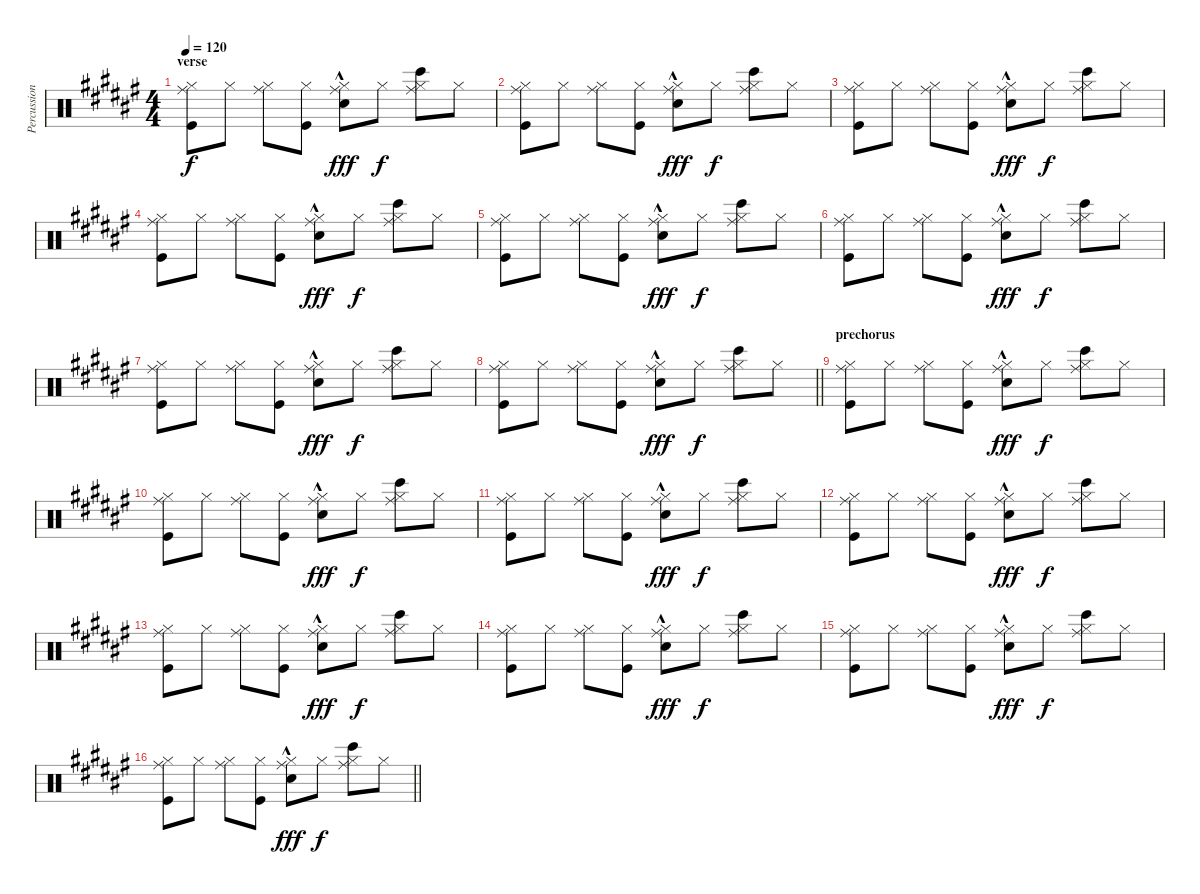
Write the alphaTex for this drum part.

\track ("Percussion" "Percussion") {instrument percussion}
\staff {score}
\articulation defaults
\ts (4 4)
\section ("" "verse")
\tempo 120
\clef neutral
\ks f#
("Kick (hit)" "Hi-Hat (closed)" "Ride (middle)").8{dy f} "Hi-Hat (closed)".8 ("Hi-Hat (closed)" "Ride (middle)").8 ("Kick (hit)" "Hi-Hat (closed)").8 ("Electric Snare (hit)"{hac} "Hi-Hat (closed)" "Ride (middle)").8{dy fff} "Hi-Hat (closed)".8{dy f} ("Bongo High (hit)" "Hi-Hat (closed)" "Ride (middle)").8 "Hi-Hat (closed)".8 |
("Kick (hit)" "Hi-Hat (closed)" "Ride (middle)").8 "Hi-Hat (closed)".8 ("Hi-Hat (closed)" "Ride (middle)").8 ("Kick (hit)" "Hi-Hat (closed)").8 ("Electric Snare (hit)"{hac} "Hi-Hat (closed)" "Ride (middle)").8{dy fff} "Hi-Hat (closed)".8{dy f} ("Bongo High (hit)" "Hi-Hat (closed)" "Ride (middle)").8 "Hi-Hat (closed)".8 |
("Kick (hit)" "Hi-Hat (closed)" "Ride (middle)").8 "Hi-Hat (closed)".8 ("Hi-Hat (closed)" "Ride (middle)").8 ("Kick (hit)" "Hi-Hat (closed)").8 ("Electric Snare (hit)"{hac} "Hi-Hat (closed)" "Ride (middle)").8{dy fff} "Hi-Hat (closed)".8{dy f} ("Bongo High (hit)" "Hi-Hat (closed)" "Ride (middle)").8 "Hi-Hat (closed)".8 |
("Kick (hit)" "Hi-Hat (closed)" "Ride (middle)").8 "Hi-Hat (closed)".8 ("Hi-Hat (closed)" "Ride (middle)").8 ("Kick (hit)" "Hi-Hat (closed)").8 ("Electric Snare (hit)"{hac} "Hi-Hat (closed)" "Ride (middle)").8{dy fff} "Hi-Hat (closed)".8{dy f} ("Bongo High (hit)" "Hi-Hat (closed)" "Ride (middle)").8 "Hi-Hat (closed)".8 |
("Kick (hit)" "Hi-Hat (closed)" "Ride (middle)").8 "Hi-Hat (closed)".8 ("Hi-Hat (closed)" "Ride (middle)").8 ("Kick (hit)" "Hi-Hat (closed)").8 ("Electric Snare (hit)"{hac} "Hi-Hat (closed)" "Ride (middle)").8{dy fff} "Hi-Hat (closed)".8{dy f} ("Bongo High (hit)" "Hi-Hat (closed)" "Ride (middle)").8 "Hi-Hat (closed)".8 |
("Kick (hit)" "Hi-Hat (closed)" "Ride (middle)").8 "Hi-Hat (closed)".8 ("Hi-Hat (closed)" "Ride (middle)").8 ("Kick (hit)" "Hi-Hat (closed)").8 ("Electric Snare (hit)"{hac} "Hi-Hat (closed)" "Ride (middle)").8{dy fff} "Hi-Hat (closed)".8{dy f} ("Bongo High (hit)" "Hi-Hat (closed)" "Ride (middle)").8 "Hi-Hat (closed)".8 |
("Kick (hit)" "Hi-Hat (closed)" "Ride (middle)").8 "Hi-Hat (closed)".8 ("Hi-Hat (closed)" "Ride (middle)").8 ("Kick (hit)" "Hi-Hat (closed)").8 ("Electric Snare (hit)"{hac} "Hi-Hat (closed)" "Ride (middle)").8{dy fff} "Hi-Hat (closed)".8{dy f} ("Bongo High (hit)" "Hi-Hat (closed)" "Ride (middle)").8 "Hi-Hat (closed)".8 |
\barLineRight lightlight
("Kick (hit)" "Hi-Hat (closed)" "Ride (middle)").8 "Hi-Hat (closed)".8 ("Hi-Hat (closed)" "Ride (middle)").8 ("Kick (hit)" "Hi-Hat (closed)").8 ("Electric Snare (hit)"{hac} "Hi-Hat (closed)" "Ride (middle)").8{dy fff} "Hi-Hat (closed)".8{dy f} ("Bongo High (hit)" "Hi-Hat (closed)" "Ride (middle)").8 "Hi-Hat (closed)".8 |
\section ("" "prechorus")
("Kick (hit)" "Hi-Hat (closed)" "Ride (middle)").8 "Hi-Hat (closed)".8 ("Hi-Hat (closed)" "Ride (middle)").8 ("Kick (hit)" "Hi-Hat (closed)").8 ("Electric Snare (hit)"{hac} "Hi-Hat (closed)" "Ride (middle)").8{dy fff} "Hi-Hat (closed)".8{dy f} ("Bongo High (hit)" "Hi-Hat (closed)" "Ride (middle)").8 "Hi-Hat (closed)".8 |
("Kick (hit)" "Hi-Hat (closed)" "Ride (middle)").8 "Hi-Hat (closed)".8 ("Hi-Hat (closed)" "Ride (middle)").8 ("Kick (hit)" "Hi-Hat (closed)").8 ("Electric Snare (hit)"{hac} "Hi-Hat (closed)" "Ride (middle)").8{dy fff} "Hi-Hat (closed)".8{dy f} ("Bongo High (hit)" "Hi-Hat (closed)" "Ride (middle)").8 "Hi-Hat (closed)".8 |
("Kick (hit)" "Hi-Hat (closed)" "Ride (middle)").8 "Hi-Hat (closed)".8 ("Hi-Hat (closed)" "Ride (middle)").8 ("Kick (hit)" "Hi-Hat (closed)").8 ("Electric Snare (hit)"{hac} "Hi-Hat (closed)" "Ride (middle)").8{dy fff} "Hi-Hat (closed)".8{dy f} ("Bongo High (hit)" "Hi-Hat (closed)" "Ride (middle)").8 "Hi-Hat (closed)".8 |
("Kick (hit)" "Hi-Hat (closed)" "Ride (middle)").8 "Hi-Hat (closed)".8 ("Hi-Hat (closed)" "Ride (middle)").8 ("Kick (hit)" "Hi-Hat (closed)").8 ("Electric Snare (hit)"{hac} "Hi-Hat (closed)" "Ride (middle)").8{dy fff} "Hi-Hat (closed)".8{dy f} ("Bongo High (hit)" "Hi-Hat (closed)" "Ride (middle)").8 "Hi-Hat (closed)".8 |
("Kick (hit)" "Hi-Hat (closed)" "Ride (middle)").8 "Hi-Hat (closed)".8 ("Hi-Hat (closed)" "Ride (middle)").8 ("Kick (hit)" "Hi-Hat (closed)").8 ("Electric Snare (hit)"{hac} "Hi-Hat (closed)" "Ride (middle)").8{dy fff} "Hi-Hat (closed)".8{dy f} ("Bongo High (hit)" "Hi-Hat (closed)" "Ride (middle)").8 "Hi-Hat (closed)".8 |
("Kick (hit)" "Hi-Hat (closed)" "Ride (middle)").8 "Hi-Hat (closed)".8 ("Hi-Hat (closed)" "Ride (middle)").8 ("Kick (hit)" "Hi-Hat (closed)").8 ("Electric Snare (hit)"{hac} "Hi-Hat (closed)" "Ride (middle)").8{dy fff} "Hi-Hat (closed)".8{dy f} ("Bongo High (hit)" "Hi-Hat (closed)" "Ride (middle)").8 "Hi-Hat (closed)".8 |
("Kick (hit)" "Hi-Hat (closed)" "Ride (middle)").8 "Hi-Hat (closed)".8 ("Hi-Hat (closed)" "Ride (middle)").8 ("Kick (hit)" "Hi-Hat (closed)").8 ("Electric Snare (hit)"{hac} "Hi-Hat (closed)" "Ride (middle)").8{dy fff} "Hi-Hat (closed)".8{dy f} ("Bongo High (hit)" "Hi-Hat (closed)" "Ride (middle)").8 "Hi-Hat (closed)".8 |
\barLineRight lightlight
("Kick (hit)" "Hi-Hat (closed)" "Ride (middle)").8 "Hi-Hat (closed)".8 ("Hi-Hat (closed)" "Ride (middle)").8 ("Kick (hit)" "Hi-Hat (closed)").8 ("Electric Snare (hit)"{hac} "Hi-Hat (closed)" "Ride (middle)").8{dy fff} "Hi-Hat (closed)".8{dy f} ("Bongo High (hit)" "Hi-Hat (closed)" "Ride (middle)").8 "Hi-Hat (closed)".8
